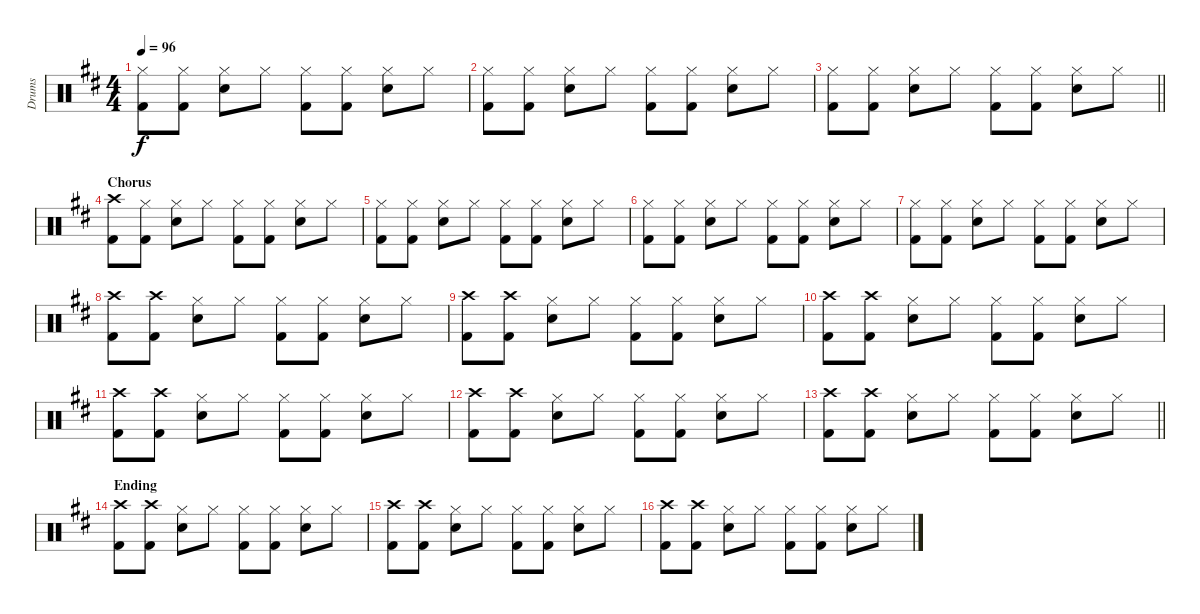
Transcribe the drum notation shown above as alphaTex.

\track ("Drums" "Drums") {instrument percussion}
\staff {score}
\articulation defaults
\ts (4 4)
\tempo 96
\clef neutral
\ks d
("Hi-Hat (closed)" "Kick (hit) 2").8{dy f} ("Hi-Hat (closed)" "Kick (hit) 2").8 ("Hi-Hat (closed)" "Electric Snare (hit)").8 "Hi-Hat (closed)".8 ("Hi-Hat (closed)" "Kick (hit) 2").8 ("Hi-Hat (closed)" "Kick (hit) 2").8 ("Hi-Hat (closed)" "Electric Snare (hit)").8 "Hi-Hat (closed)".8 |
("Hi-Hat (closed)" "Kick (hit) 2").8 ("Hi-Hat (closed)" "Kick (hit) 2").8 ("Hi-Hat (closed)" "Electric Snare (hit)").8 "Hi-Hat (closed)".8 ("Hi-Hat (closed)" "Kick (hit) 2").8 ("Hi-Hat (closed)" "Kick (hit) 2").8 ("Hi-Hat (closed)" "Electric Snare (hit)").8 "Hi-Hat (closed)".8 |
\barLineRight lightlight
("Hi-Hat (closed)" "Kick (hit) 2").8 ("Hi-Hat (closed)" "Kick (hit) 2").8 ("Hi-Hat (closed)" "Electric Snare (hit)").8 "Hi-Hat (closed)".8 ("Hi-Hat (closed)" "Kick (hit) 2").8 ("Hi-Hat (closed)" "Kick (hit) 2").8 ("Hi-Hat (closed)" "Electric Snare (hit)").8 "Hi-Hat (closed)".8 |
\section ("" "Chorus")
("Crash high (hit)" "Kick (hit) 2").8 ("Hi-Hat (closed)" "Kick (hit) 2").8 ("Hi-Hat (closed)" "Electric Snare (hit)").8 "Hi-Hat (closed)".8 ("Hi-Hat (closed)" "Kick (hit) 2").8 ("Hi-Hat (closed)" "Kick (hit) 2").8 ("Hi-Hat (closed)" "Electric Snare (hit)").8 "Hi-Hat (closed)".8 |
("Hi-Hat (closed)" "Kick (hit) 2").8 ("Hi-Hat (closed)" "Kick (hit) 2").8 ("Hi-Hat (closed)" "Electric Snare (hit)").8 "Hi-Hat (closed)".8 ("Hi-Hat (closed)" "Kick (hit) 2").8 ("Hi-Hat (closed)" "Kick (hit) 2").8 ("Hi-Hat (closed)" "Electric Snare (hit)").8 "Hi-Hat (closed)".8 |
("Hi-Hat (closed)" "Kick (hit) 2").8 ("Hi-Hat (closed)" "Kick (hit) 2").8 ("Hi-Hat (closed)" "Electric Snare (hit)").8 "Hi-Hat (closed)".8 ("Hi-Hat (closed)" "Kick (hit) 2").8 ("Hi-Hat (closed)" "Kick (hit) 2").8 ("Hi-Hat (closed)" "Electric Snare (hit)").8 "Hi-Hat (closed)".8 |
("Hi-Hat (closed)" "Kick (hit) 2").8 ("Hi-Hat (closed)" "Kick (hit) 2").8 ("Hi-Hat (closed)" "Electric Snare (hit)").8 "Hi-Hat (closed)".8 ("Hi-Hat (closed)" "Kick (hit) 2").8 ("Hi-Hat (closed)" "Kick (hit) 2").8 ("Hi-Hat (closed)" "Electric Snare (hit)").8 "Hi-Hat (closed)".8 |
("Crash high (hit)" "Kick (hit) 2").8 ("Crash high (hit)" "Kick (hit) 2").8 ("Hi-Hat (closed)" "Electric Snare (hit)").8 "Hi-Hat (closed)".8 ("Hi-Hat (closed)" "Kick (hit) 2").8 ("Hi-Hat (closed)" "Kick (hit) 2").8 ("Hi-Hat (closed)" "Electric Snare (hit)").8 "Hi-Hat (closed)".8 |
("Crash high (hit)" "Kick (hit) 2").8 ("Crash high (hit)" "Kick (hit) 2").8 ("Hi-Hat (closed)" "Electric Snare (hit)").8 "Hi-Hat (closed)".8 ("Hi-Hat (closed)" "Kick (hit) 2").8 ("Hi-Hat (closed)" "Kick (hit) 2").8 ("Hi-Hat (closed)" "Electric Snare (hit)").8 "Hi-Hat (closed)".8 |
("Crash high (hit)" "Kick (hit) 2").8 ("Crash high (hit)" "Kick (hit) 2").8 ("Hi-Hat (closed)" "Electric Snare (hit)").8 "Hi-Hat (closed)".8 ("Hi-Hat (closed)" "Kick (hit) 2").8 ("Hi-Hat (closed)" "Kick (hit) 2").8 ("Hi-Hat (closed)" "Electric Snare (hit)").8 "Hi-Hat (closed)".8 |
("Crash high (hit)" "Kick (hit) 2").8 ("Crash high (hit)" "Kick (hit) 2").8 ("Hi-Hat (closed)" "Electric Snare (hit)").8 "Hi-Hat (closed)".8 ("Hi-Hat (closed)" "Kick (hit) 2").8 ("Hi-Hat (closed)" "Kick (hit) 2").8 ("Hi-Hat (closed)" "Electric Snare (hit)").8 "Hi-Hat (closed)".8 |
("Crash high (hit)" "Kick (hit) 2").8 ("Crash high (hit)" "Kick (hit) 2").8 ("Hi-Hat (closed)" "Electric Snare (hit)").8 "Hi-Hat (closed)".8 ("Hi-Hat (closed)" "Kick (hit) 2").8 ("Hi-Hat (closed)" "Kick (hit) 2").8 ("Hi-Hat (closed)" "Electric Snare (hit)").8 "Hi-Hat (closed)".8 |
\barLineRight lightlight
("Crash high (hit)" "Kick (hit) 2").8 ("Crash high (hit)" "Kick (hit) 2").8 ("Hi-Hat (closed)" "Electric Snare (hit)").8 "Hi-Hat (closed)".8 ("Hi-Hat (closed)" "Kick (hit) 2").8 ("Hi-Hat (closed)" "Kick (hit) 2").8 ("Hi-Hat (closed)" "Electric Snare (hit)").8 "Hi-Hat (closed)".8 |
\section ("" "Ending")
("Crash high (hit)" "Kick (hit) 2").8 ("Crash high (hit)" "Kick (hit) 2").8 ("Hi-Hat (closed)" "Electric Snare (hit)").8 "Hi-Hat (closed)".8 ("Hi-Hat (closed)" "Kick (hit) 2").8 ("Hi-Hat (closed)" "Kick (hit) 2").8 ("Hi-Hat (closed)" "Electric Snare (hit)").8 "Hi-Hat (closed)".8 |
("Crash high (hit)" "Kick (hit) 2").8 ("Crash high (hit)" "Kick (hit) 2").8 ("Hi-Hat (closed)" "Electric Snare (hit)").8 "Hi-Hat (closed)".8 ("Hi-Hat (closed)" "Kick (hit) 2").8 ("Hi-Hat (closed)" "Kick (hit) 2").8 ("Hi-Hat (closed)" "Electric Snare (hit)").8 "Hi-Hat (closed)".8 |
("Crash high (hit)" "Kick (hit) 2").8 ("Crash high (hit)" "Kick (hit) 2").8 ("Hi-Hat (closed)" "Electric Snare (hit)").8 "Hi-Hat (closed)".8 ("Hi-Hat (closed)" "Kick (hit) 2").8 ("Hi-Hat (closed)" "Kick (hit) 2").8 ("Hi-Hat (closed)" "Electric Snare (hit)").8 "Hi-Hat (closed)".8
